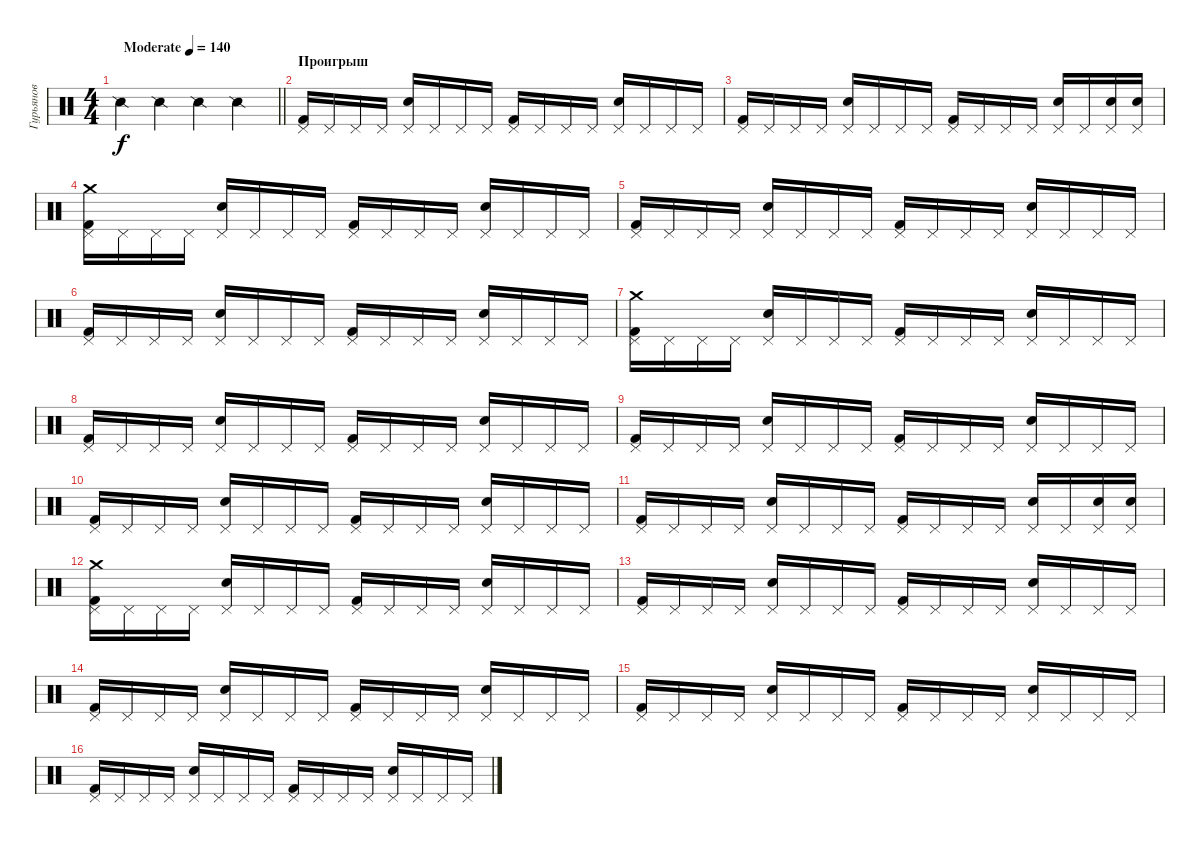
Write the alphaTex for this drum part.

\track ("Гурьянов" "Гурьянов") {instrument percussion}
\staff {score}
\articulation defaults
\ts (4 4)
\tempo (140 "Moderate")
\clef neutral
\barLineRight lightlight
\ks c "Snare (side stick) 2".4{dy f} "Snare (side stick) 2".4 "Snare (side stick) 2".4 "Snare (side stick) 2".4
|
\section ("" "Проигрыш")
("Pedal Hi-Hat (hit)" "Kick (hit) 2").16 "Pedal Hi-Hat (hit)".16 "Pedal Hi-Hat (hit)".16 "Pedal Hi-Hat (hit)".16 ("Pedal Hi-Hat (hit)" "Electric Snare (hit)").16 "Pedal Hi-Hat (hit)".16 "Pedal Hi-Hat (hit)".16 "Pedal Hi-Hat (hit)".16 ("Pedal Hi-Hat (hit)" "Kick (hit) 2").16 "Pedal Hi-Hat (hit)".16 "Pedal Hi-Hat (hit)".16 "Pedal Hi-Hat (hit)".16 ("Pedal Hi-Hat (hit)" "Electric Snare (hit)").16 "Pedal Hi-Hat (hit)".16 "Pedal Hi-Hat (hit)".16 "Pedal Hi-Hat (hit)".16 |
("Pedal Hi-Hat (hit)" "Kick (hit) 2").16 "Pedal Hi-Hat (hit)".16 "Pedal Hi-Hat (hit)".16 "Pedal Hi-Hat (hit)".16 ("Pedal Hi-Hat (hit)" "Electric Snare (hit)").16 "Pedal Hi-Hat (hit)".16 "Pedal Hi-Hat (hit)".16 "Pedal Hi-Hat (hit)".16 ("Pedal Hi-Hat (hit)" "Kick (hit) 2").16 "Pedal Hi-Hat (hit)".16 "Pedal Hi-Hat (hit)".16 "Pedal Hi-Hat (hit)".16 ("Pedal Hi-Hat (hit)" "Electric Snare (hit)").16 "Pedal Hi-Hat (hit)".16 ("Pedal Hi-Hat (hit)" "Electric Snare (hit)").16 ("Pedal Hi-Hat (hit)" "Electric Snare (hit)").16 |
("Pedal Hi-Hat (hit)" "Kick (hit) 2" "Crash medium (hit)").16 "Pedal Hi-Hat (hit)".16 "Pedal Hi-Hat (hit)".16 "Pedal Hi-Hat (hit)".16 ("Pedal Hi-Hat (hit)" "Electric Snare (hit)").16 "Pedal Hi-Hat (hit)".16 "Pedal Hi-Hat (hit)".16 "Pedal Hi-Hat (hit)".16 ("Pedal Hi-Hat (hit)" "Kick (hit) 2").16 "Pedal Hi-Hat (hit)".16 "Pedal Hi-Hat (hit)".16 "Pedal Hi-Hat (hit)".16 ("Pedal Hi-Hat (hit)" "Electric Snare (hit)").16 "Pedal Hi-Hat (hit)".16 "Pedal Hi-Hat (hit)".16 "Pedal Hi-Hat (hit)".16 |
("Pedal Hi-Hat (hit)" "Kick (hit) 2").16 "Pedal Hi-Hat (hit)".16 "Pedal Hi-Hat (hit)".16 "Pedal Hi-Hat (hit)".16 ("Pedal Hi-Hat (hit)" "Electric Snare (hit)").16 "Pedal Hi-Hat (hit)".16 "Pedal Hi-Hat (hit)".16 "Pedal Hi-Hat (hit)".16 ("Pedal Hi-Hat (hit)" "Kick (hit) 2").16 "Pedal Hi-Hat (hit)".16 "Pedal Hi-Hat (hit)".16 "Pedal Hi-Hat (hit)".16 ("Pedal Hi-Hat (hit)" "Electric Snare (hit)").16 "Pedal Hi-Hat (hit)".16 "Pedal Hi-Hat (hit)".16 "Pedal Hi-Hat (hit)".16 |
("Pedal Hi-Hat (hit)" "Kick (hit) 2").16 "Pedal Hi-Hat (hit)".16 "Pedal Hi-Hat (hit)".16 "Pedal Hi-Hat (hit)".16 ("Pedal Hi-Hat (hit)" "Electric Snare (hit)").16 "Pedal Hi-Hat (hit)".16 "Pedal Hi-Hat (hit)".16 "Pedal Hi-Hat (hit)".16 ("Pedal Hi-Hat (hit)" "Kick (hit) 2").16 "Pedal Hi-Hat (hit)".16 "Pedal Hi-Hat (hit)".16 "Pedal Hi-Hat (hit)".16 ("Pedal Hi-Hat (hit)" "Electric Snare (hit)").16 "Pedal Hi-Hat (hit)".16 "Pedal Hi-Hat (hit)".16 "Pedal Hi-Hat (hit)".16 |
("Pedal Hi-Hat (hit)" "Crash medium (hit)" "Kick (hit) 2").16 "Pedal Hi-Hat (hit)".16 "Pedal Hi-Hat (hit)".16 "Pedal Hi-Hat (hit)".16 ("Pedal Hi-Hat (hit)" "Electric Snare (hit)").16 "Pedal Hi-Hat (hit)".16 "Pedal Hi-Hat (hit)".16 "Pedal Hi-Hat (hit)".16 ("Pedal Hi-Hat (hit)" "Kick (hit) 2").16 "Pedal Hi-Hat (hit)".16 "Pedal Hi-Hat (hit)".16 "Pedal Hi-Hat (hit)".16 ("Pedal Hi-Hat (hit)" "Electric Snare (hit)").16 "Pedal Hi-Hat (hit)".16 "Pedal Hi-Hat (hit)".16 "Pedal Hi-Hat (hit)".16 |
("Pedal Hi-Hat (hit)" "Kick (hit) 2").16 "Pedal Hi-Hat (hit)".16 "Pedal Hi-Hat (hit)".16 "Pedal Hi-Hat (hit)".16 ("Pedal Hi-Hat (hit)" "Electric Snare (hit)").16 "Pedal Hi-Hat (hit)".16 "Pedal Hi-Hat (hit)".16 "Pedal Hi-Hat (hit)".16 ("Pedal Hi-Hat (hit)" "Kick (hit) 2").16 "Pedal Hi-Hat (hit)".16 "Pedal Hi-Hat (hit)".16 "Pedal Hi-Hat (hit)".16 ("Pedal Hi-Hat (hit)" "Electric Snare (hit)").16 "Pedal Hi-Hat (hit)".16 "Pedal Hi-Hat (hit)".16 "Pedal Hi-Hat (hit)".16 |
("Pedal Hi-Hat (hit)" "Kick (hit) 2").16 "Pedal Hi-Hat (hit)".16 "Pedal Hi-Hat (hit)".16 "Pedal Hi-Hat (hit)".16 ("Pedal Hi-Hat (hit)" "Electric Snare (hit)").16 "Pedal Hi-Hat (hit)".16 "Pedal Hi-Hat (hit)".16 "Pedal Hi-Hat (hit)".16 ("Pedal Hi-Hat (hit)" "Kick (hit) 2").16 "Pedal Hi-Hat (hit)".16 "Pedal Hi-Hat (hit)".16 "Pedal Hi-Hat (hit)".16 ("Pedal Hi-Hat (hit)" "Electric Snare (hit)").16 "Pedal Hi-Hat (hit)".16 "Pedal Hi-Hat (hit)".16 "Pedal Hi-Hat (hit)".16 |
("Pedal Hi-Hat (hit)" "Kick (hit) 2").16 "Pedal Hi-Hat (hit)".16 "Pedal Hi-Hat (hit)".16 "Pedal Hi-Hat (hit)".16 ("Pedal Hi-Hat (hit)" "Electric Snare (hit)").16 "Pedal Hi-Hat (hit)".16 "Pedal Hi-Hat (hit)".16 "Pedal Hi-Hat (hit)".16 ("Pedal Hi-Hat (hit)" "Kick (hit) 2").16 "Pedal Hi-Hat (hit)".16 "Pedal Hi-Hat (hit)".16 "Pedal Hi-Hat (hit)".16 ("Pedal Hi-Hat (hit)" "Electric Snare (hit)").16 "Pedal Hi-Hat (hit)".16 "Pedal Hi-Hat (hit)".16 "Pedal Hi-Hat (hit)".16 |
("Pedal Hi-Hat (hit)" "Kick (hit) 2").16 "Pedal Hi-Hat (hit)".16 "Pedal Hi-Hat (hit)".16 "Pedal Hi-Hat (hit)".16 ("Pedal Hi-Hat (hit)" "Electric Snare (hit)").16 "Pedal Hi-Hat (hit)".16 "Pedal Hi-Hat (hit)".16 "Pedal Hi-Hat (hit)".16 ("Pedal Hi-Hat (hit)" "Kick (hit) 2").16 "Pedal Hi-Hat (hit)".16 "Pedal Hi-Hat (hit)".16 "Pedal Hi-Hat (hit)".16 ("Pedal Hi-Hat (hit)" "Electric Snare (hit)").16 "Pedal Hi-Hat (hit)".16 ("Pedal Hi-Hat (hit)" "Electric Snare (hit)").16 ("Pedal Hi-Hat (hit)" "Electric Snare (hit)").16 |
("Pedal Hi-Hat (hit)" "Kick (hit) 2" "Crash medium (hit)").16 "Pedal Hi-Hat (hit)".16 "Pedal Hi-Hat (hit)".16 "Pedal Hi-Hat (hit)".16 ("Pedal Hi-Hat (hit)" "Electric Snare (hit)").16 "Pedal Hi-Hat (hit)".16 "Pedal Hi-Hat (hit)".16 "Pedal Hi-Hat (hit)".16 ("Pedal Hi-Hat (hit)" "Kick (hit) 2").16 "Pedal Hi-Hat (hit)".16 "Pedal Hi-Hat (hit)".16 "Pedal Hi-Hat (hit)".16 ("Pedal Hi-Hat (hit)" "Electric Snare (hit)").16 "Pedal Hi-Hat (hit)".16 "Pedal Hi-Hat (hit)".16 "Pedal Hi-Hat (hit)".16 |
("Pedal Hi-Hat (hit)" "Kick (hit) 2").16 "Pedal Hi-Hat (hit)".16 "Pedal Hi-Hat (hit)".16 "Pedal Hi-Hat (hit)".16 ("Pedal Hi-Hat (hit)" "Electric Snare (hit)").16 "Pedal Hi-Hat (hit)".16 "Pedal Hi-Hat (hit)".16 "Pedal Hi-Hat (hit)".16 ("Pedal Hi-Hat (hit)" "Kick (hit) 2").16 "Pedal Hi-Hat (hit)".16 "Pedal Hi-Hat (hit)".16 "Pedal Hi-Hat (hit)".16 ("Pedal Hi-Hat (hit)" "Electric Snare (hit)").16 "Pedal Hi-Hat (hit)".16 "Pedal Hi-Hat (hit)".16 "Pedal Hi-Hat (hit)".16 |
("Pedal Hi-Hat (hit)" "Kick (hit) 2").16 "Pedal Hi-Hat (hit)".16 "Pedal Hi-Hat (hit)".16 "Pedal Hi-Hat (hit)".16 ("Pedal Hi-Hat (hit)" "Electric Snare (hit)").16 "Pedal Hi-Hat (hit)".16 "Pedal Hi-Hat (hit)".16 "Pedal Hi-Hat (hit)".16 ("Pedal Hi-Hat (hit)" "Kick (hit) 2").16 "Pedal Hi-Hat (hit)".16 "Pedal Hi-Hat (hit)".16 "Pedal Hi-Hat (hit)".16 ("Pedal Hi-Hat (hit)" "Electric Snare (hit)").16 "Pedal Hi-Hat (hit)".16 "Pedal Hi-Hat (hit)".16 "Pedal Hi-Hat (hit)".16 |
("Pedal Hi-Hat (hit)" "Kick (hit) 2").16 "Pedal Hi-Hat (hit)".16 "Pedal Hi-Hat (hit)".16 "Pedal Hi-Hat (hit)".16 ("Pedal Hi-Hat (hit)" "Electric Snare (hit)").16 "Pedal Hi-Hat (hit)".16 "Pedal Hi-Hat (hit)".16 "Pedal Hi-Hat (hit)".16 ("Pedal Hi-Hat (hit)" "Kick (hit) 2").16 "Pedal Hi-Hat (hit)".16 "Pedal Hi-Hat (hit)".16 "Pedal Hi-Hat (hit)".16 ("Pedal Hi-Hat (hit)" "Electric Snare (hit)").16 "Pedal Hi-Hat (hit)".16 "Pedal Hi-Hat (hit)".16 "Pedal Hi-Hat (hit)".16 |
("Pedal Hi-Hat (hit)" "Kick (hit) 2").16 "Pedal Hi-Hat (hit)".16 "Pedal Hi-Hat (hit)".16 "Pedal Hi-Hat (hit)".16 ("Pedal Hi-Hat (hit)" "Electric Snare (hit)").16 "Pedal Hi-Hat (hit)".16 "Pedal Hi-Hat (hit)".16 "Pedal Hi-Hat (hit)".16 ("Pedal Hi-Hat (hit)" "Kick (hit) 2").16 "Pedal Hi-Hat (hit)".16 "Pedal Hi-Hat (hit)".16 "Pedal Hi-Hat (hit)".16 ("Pedal Hi-Hat (hit)" "Electric Snare (hit)").16 "Pedal Hi-Hat (hit)".16 "Pedal Hi-Hat (hit)".16 "Pedal Hi-Hat (hit)".16
